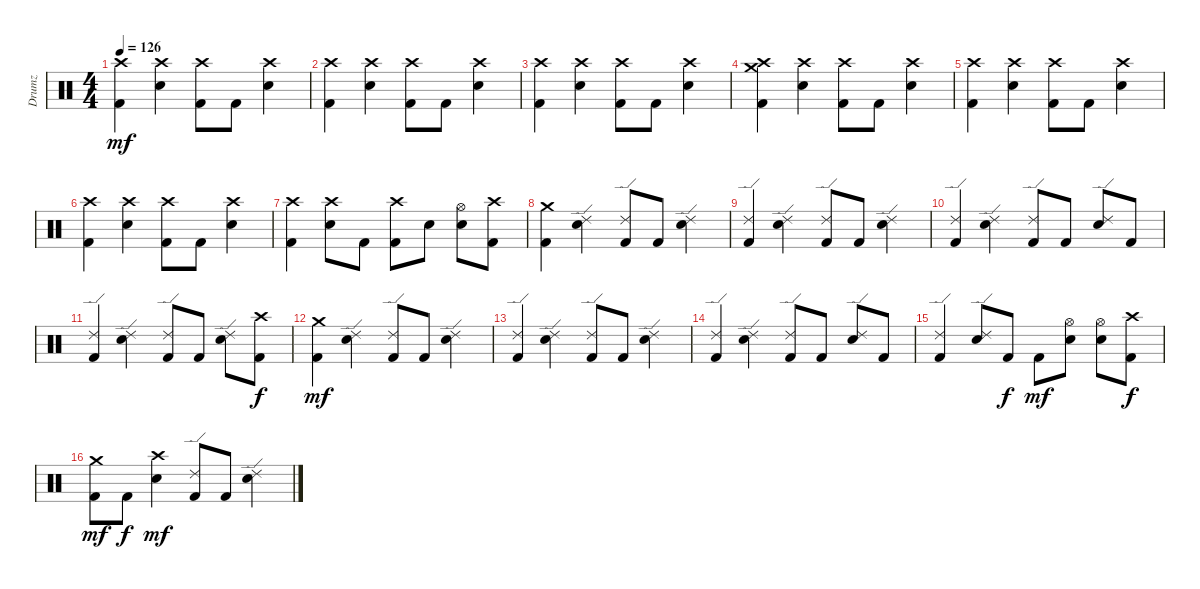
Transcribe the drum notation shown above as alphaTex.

\track ("Drumz" "Drumz") {instrument percussion}
\staff {score}
\articulation defaults
\ts (4 4)
\tempo 126
\clef neutral
\ks c
("Crash high (hit)" "Kick (hit) 2").4{dy mf} ("Crash high (hit)" "Snare (hit) 2").4 ("Crash high (hit)" "Kick (hit) 2").8 "Kick (hit) 2".8 ("Crash high (hit)" "Snare (hit) 2").4 |
("Crash high (hit)" "Kick (hit) 2").4 ("Crash high (hit)" "Snare (hit) 2").4 ("Crash high (hit)" "Kick (hit) 2").8 "Kick (hit) 2".8 ("Crash high (hit)" "Snare (hit) 2").4 |
("Crash high (hit)" "Kick (hit) 2").4 ("Crash high (hit)" "Snare (hit) 2").4 ("Crash high (hit)" "Kick (hit) 2").8 "Kick (hit) 2".8 ("Crash high (hit)" "Snare (hit) 2").4 |
("Crash high (hit)" "Crash medium (hit)" "Kick (hit) 2").4 ("Crash high (hit)" "Snare (hit) 2").4 ("Crash high (hit)" "Kick (hit) 2").8 "Kick (hit) 2".8 ("Crash high (hit)" "Snare (hit) 2").4 |
("Crash high (hit)" "Kick (hit) 2").4 ("Crash high (hit)" "Snare (hit) 2").4 ("Crash high (hit)" "Kick (hit) 2").8 "Kick (hit) 2".8 ("Crash high (hit)" "Snare (hit) 2").4 |
("Crash high (hit)" "Kick (hit) 2").4 ("Crash high (hit)" "Snare (hit) 2").4 ("Crash high (hit)" "Kick (hit) 2").8 "Kick (hit) 2".8 ("Crash high (hit)" "Snare (hit) 2").4 |
("Crash high (hit)" "Kick (hit) 2").4 ("Crash high (hit)" "Snare (hit) 2").8 "Kick (hit) 2".8 ("Crash high (hit)" "Kick (hit) 2").8 "Snare (hit) 2".8 ("Hi-Hat (open)" "Snare (hit) 2").8 ("Crash high (hit)" "Kick (hit) 2").8 |
("Crash medium (hit)" "Kick (hit) 2").4 ("Ride (edge) 2" "Snare (hit) 2").4 ("Ride (edge) 2" "Kick (hit) 2").8 "Kick (hit) 2".8 ("Ride (edge) 2" "Snare (hit) 2").4 |
("Ride (edge) 2" "Kick (hit) 2").4 ("Ride (edge) 2" "Snare (hit) 2").4 ("Ride (edge) 2" "Kick (hit) 2").8 "Kick (hit) 2".8 ("Ride (edge) 2" "Snare (hit) 2").4 |
("Ride (edge) 2" "Kick (hit) 2").4 ("Ride (edge) 2" "Snare (hit) 2").4 ("Ride (edge) 2" "Kick (hit) 2").8 "Kick (hit) 2".8 ("Ride (edge) 2" "Snare (hit) 2").8 "Kick (hit) 2".8 |
("Ride (edge) 2" "Kick (hit) 2").4 ("Ride (edge) 2" "Snare (hit) 2").4 ("Ride (edge) 2" "Kick (hit) 2").8 "Kick (hit) 2".8 ("Ride (edge) 2" "Snare (hit) 2").8 ("Crash high (hit)" "Kick (hit) 2").8{dy f} |
("Crash medium (hit)" "Kick (hit) 2").4{dy mf} ("Ride (edge) 2" "Snare (hit) 2").4 ("Ride (edge) 2" "Kick (hit) 2").8 "Kick (hit) 2".8 ("Ride (edge) 2" "Snare (hit) 2").4 |
("Ride (edge) 2" "Kick (hit) 2").4 ("Ride (edge) 2" "Snare (hit) 2").4 ("Ride (edge) 2" "Kick (hit) 2").8 "Kick (hit) 2".8 ("Ride (edge) 2" "Snare (hit) 2").4 |
("Ride (edge) 2" "Kick (hit) 2").4 ("Ride (edge) 2" "Snare (hit) 2").4 ("Ride (edge) 2" "Kick (hit) 2").8 "Kick (hit) 2".8 ("Ride (edge) 2" "Snare (hit) 2").8 "Kick (hit) 2".8 |
("Ride (edge) 2" "Kick (hit) 2").4 ("Ride (edge) 2" "Snare (hit) 2").8 "Kick (hit) 2".8{dy f} "Kick (hit) 2".8{dy mf} ("Hi-Hat (open)" "Snare (hit) 2").8 ("Hi-Hat (open)" "Snare (hit) 2").8 ("Crash high (hit)" "Kick (hit) 2").8{dy f} |
("Crash medium (hit)" "Kick (hit) 2").8{dy mf} "Kick (hit) 2".8{dy f} ("Crash high (hit)" "Snare (hit) 2").4{dy mf} ("Ride (edge) 2" "Kick (hit) 2").8 "Kick (hit) 2".8 ("Ride (edge) 2" "Snare (hit) 2").4
